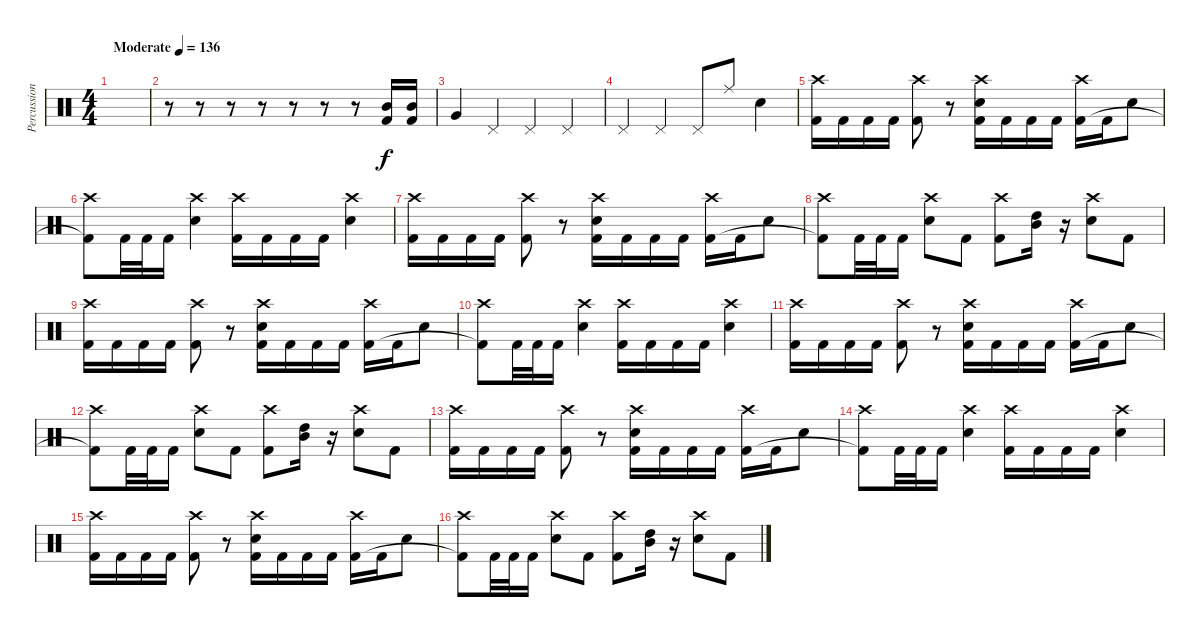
\track ("Percussion" "Percussion") {instrument percussion}
\staff {score}
\articulation defaults
\ts (4 4)
\tempo (136 "Moderate")
\clef neutral
\ks c
|
r.8 r.8 r.8 r.8 r.8 r.8 r.8 ("Mid Tom (hit)" "Kick (hit) 2").16 ("Mid Tom (hit)" "Kick (hit) 2").16 |
"Very Low Tom (hit)".4 "Pedal Hi-Hat (hit)".4 "Pedal Hi-Hat (hit)".4 "Pedal Hi-Hat (hit)".4 |
"Pedal Hi-Hat (hit)".4 "Pedal Hi-Hat (hit)".4 "Pedal Hi-Hat (hit)".8 "Ride (middle)".8 "Electric Snare (hit)".4 |
("Crash high (hit)" "Kick (hit) 2").16 "Kick (hit) 2".16 "Kick (hit) 2".16 "Kick (hit) 2".16 ("Crash high (hit)" "Kick (hit) 2").8 r.8 ("Crash high (hit)" "Electric Snare (hit)" "Kick (hit) 2").16 "Kick (hit) 2".16 "Kick (hit) 2".16 "Kick (hit) 2".16 ("Crash high (hit)" "Kick (hit) 2").16 "Kick (hit) 2".16 "Electric Snare (hit)".8 |
("Crash high (hit)" "Kick (hit) 2"{t}).8 "Kick (hit) 2".32 "Kick (hit) 2".32 "Kick (hit) 2".16 ("Crash high (hit)" "Electric Snare (hit)").4 ("Crash high (hit)" "Kick (hit) 2").16 "Kick (hit) 2".16 "Kick (hit) 2".16 "Kick (hit) 2".16 ("Crash high (hit)" "Electric Snare (hit)").4 |
("Crash high (hit)" "Kick (hit) 2").16 "Kick (hit) 2".16 "Kick (hit) 2".16 "Kick (hit) 2".16 ("Crash high (hit)" "Kick (hit) 2").8 r.8 ("Crash high (hit)" "Electric Snare (hit)" "Kick (hit) 2").16 "Kick (hit) 2".16 "Kick (hit) 2".16 "Kick (hit) 2".16 ("Crash high (hit)" "Kick (hit) 2").16 "Kick (hit) 2".16 "Electric Snare (hit)".8 |
("Crash high (hit)" "Kick (hit) 2"{t}).8 "Kick (hit) 2".32 "Kick (hit) 2".32 "Kick (hit) 2".16 ("Crash high (hit)" "Electric Snare (hit)").8 "Kick (hit) 2".8 ("Crash high (hit)" "Kick (hit) 2").8 ("High Tom (hit)" "Mid Tom (hit)").16 r.16 ("Crash high (hit)" "Electric Snare (hit)").8 "Kick (hit) 2".8 |
("Crash high (hit)" "Kick (hit) 2").16 "Kick (hit) 2".16 "Kick (hit) 2".16 "Kick (hit) 2".16 ("Crash high (hit)" "Kick (hit) 2").8 r.8 ("Crash high (hit)" "Electric Snare (hit)" "Kick (hit) 2").16 "Kick (hit) 2".16 "Kick (hit) 2".16 "Kick (hit) 2".16 ("Crash high (hit)" "Kick (hit) 2").16 "Kick (hit) 2".16 "Electric Snare (hit)".8 |
("Crash high (hit)" "Kick (hit) 2"{t}).8 "Kick (hit) 2".32 "Kick (hit) 2".32 "Kick (hit) 2".16 ("Crash high (hit)" "Electric Snare (hit)").4 ("Crash high (hit)" "Kick (hit) 2").16 "Kick (hit) 2".16 "Kick (hit) 2".16 "Kick (hit) 2".16 ("Crash high (hit)" "Electric Snare (hit)").4 |
("Crash high (hit)" "Kick (hit) 2").16 "Kick (hit) 2".16 "Kick (hit) 2".16 "Kick (hit) 2".16 ("Crash high (hit)" "Kick (hit) 2").8 r.8 ("Crash high (hit)" "Electric Snare (hit)" "Kick (hit) 2").16 "Kick (hit) 2".16 "Kick (hit) 2".16 "Kick (hit) 2".16 ("Crash high (hit)" "Kick (hit) 2").16 "Kick (hit) 2".16 "Electric Snare (hit)".8 |
("Crash high (hit)" "Kick (hit) 2"{t}).8 "Kick (hit) 2".32 "Kick (hit) 2".32 "Kick (hit) 2".16 ("Crash high (hit)" "Electric Snare (hit)").8 "Kick (hit) 2".8 ("Crash high (hit)" "Kick (hit) 2").8 ("High Tom (hit)" "Mid Tom (hit)").16 r.16 ("Crash high (hit)" "Electric Snare (hit)").8 "Kick (hit) 2".8 |
("Crash high (hit)" "Kick (hit) 2").16 "Kick (hit) 2".16 "Kick (hit) 2".16 "Kick (hit) 2".16 ("Crash high (hit)" "Kick (hit) 2").8 r.8 ("Crash high (hit)" "Electric Snare (hit)" "Kick (hit) 2").16 "Kick (hit) 2".16 "Kick (hit) 2".16 "Kick (hit) 2".16 ("Crash high (hit)" "Kick (hit) 2").16 "Kick (hit) 2".16 "Electric Snare (hit)".8 |
("Crash high (hit)" "Kick (hit) 2"{t}).8 "Kick (hit) 2".32 "Kick (hit) 2".32 "Kick (hit) 2".16 ("Crash high (hit)" "Electric Snare (hit)").4 ("Crash high (hit)" "Kick (hit) 2").16 "Kick (hit) 2".16 "Kick (hit) 2".16 "Kick (hit) 2".16 ("Crash high (hit)" "Electric Snare (hit)").4 |
("Crash high (hit)" "Kick (hit) 2").16 "Kick (hit) 2".16 "Kick (hit) 2".16 "Kick (hit) 2".16 ("Crash high (hit)" "Kick (hit) 2").8 r.8 ("Crash high (hit)" "Electric Snare (hit)" "Kick (hit) 2").16 "Kick (hit) 2".16 "Kick (hit) 2".16 "Kick (hit) 2".16 ("Crash high (hit)" "Kick (hit) 2").16 "Kick (hit) 2".16 "Electric Snare (hit)".8 |
("Crash high (hit)" "Kick (hit) 2"{t}).8 "Kick (hit) 2".32 "Kick (hit) 2".32 "Kick (hit) 2".16 ("Crash high (hit)" "Electric Snare (hit)").8 "Kick (hit) 2".8 ("Crash high (hit)" "Kick (hit) 2").8 ("High Tom (hit)" "Mid Tom (hit)").16 r.16 ("Crash high (hit)" "Electric Snare (hit)").8 "Kick (hit) 2".8
